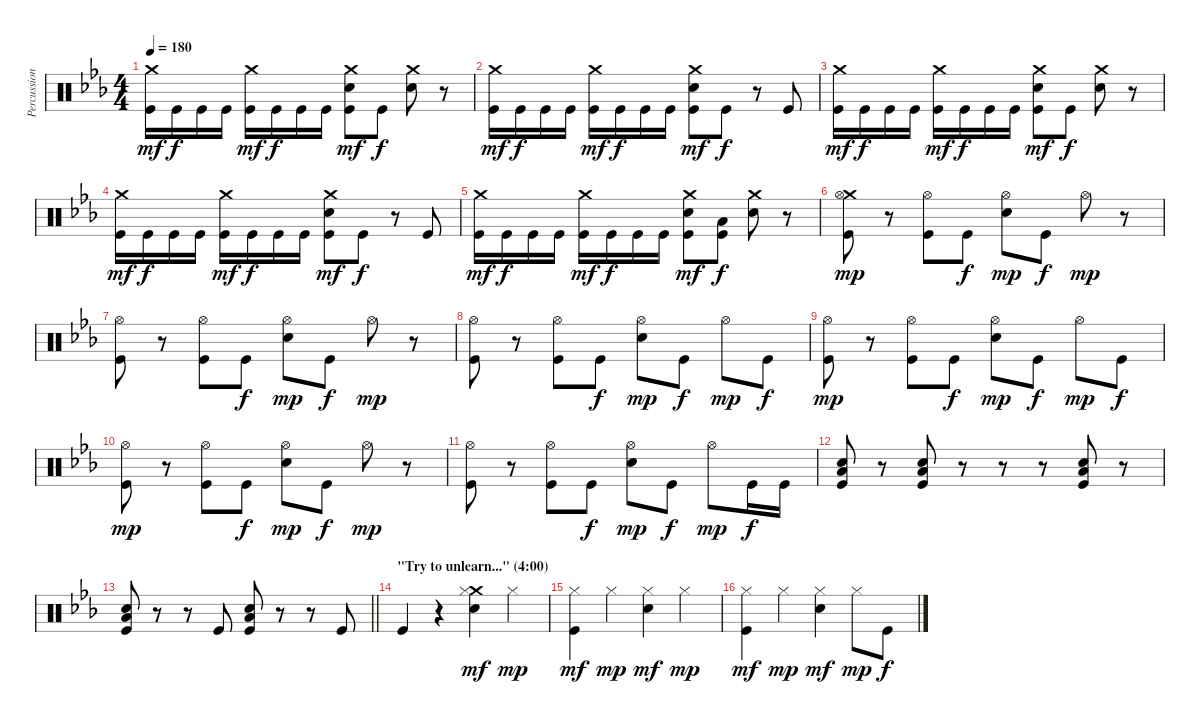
\track ("Percussion" "Percussion") {instrument percussion}
\staff {score}
\articulation defaults
\ts (4 4)
\tempo 180
\clef neutral
\ks cminor
("Crash medium (hit)" "Kick (hit)").16{dy mf} "Kick (hit)".16{dy f} "Kick (hit)".16 "Kick (hit)".16 ("Crash medium (hit)" "Kick (hit)").16{dy mf} "Kick (hit)".16{dy f} "Kick (hit)".16 "Kick (hit)".16 ("Crash medium (hit)" "Snare (hit) 2" "Kick (hit)").8{dy mf} "Kick (hit)".8{dy f} ("Crash medium (hit)" "Snare (hit) 2").8 r.8 |
("Crash medium (hit)" "Kick (hit)").16{dy mf} "Kick (hit)".16{dy f} "Kick (hit)".16 "Kick (hit)".16 ("Crash medium (hit)" "Kick (hit)").16{dy mf} "Kick (hit)".16{dy f} "Kick (hit)".16 "Kick (hit)".16 ("Crash medium (hit)" "Snare (hit) 2" "Kick (hit)").8{dy mf} "Kick (hit)".8{dy f} r.8 "Kick (hit)".8 |
("Crash medium (hit)" "Kick (hit)").16{dy mf} "Kick (hit)".16{dy f} "Kick (hit)".16 "Kick (hit)".16 ("Crash medium (hit)" "Kick (hit)").16{dy mf} "Kick (hit)".16{dy f} "Kick (hit)".16 "Kick (hit)".16 ("Crash medium (hit)" "Snare (hit) 2" "Kick (hit)").8{dy mf} "Kick (hit)".8{dy f} ("Crash medium (hit)" "Snare (hit) 2").8 r.8 |
("Crash medium (hit)" "Kick (hit)").16{dy mf} "Kick (hit)".16{dy f} "Kick (hit)".16 "Kick (hit)".16 ("Crash medium (hit)" "Kick (hit)").16{dy mf} "Kick (hit)".16{dy f} "Kick (hit)".16 "Kick (hit)".16 ("Crash medium (hit)" "Snare (hit) 2" "Kick (hit)").8{dy mf} "Kick (hit)".8{dy f} r.8 "Kick (hit)".8 |
("Crash medium (hit)" "Kick (hit)").16{dy mf} "Kick (hit)".16{dy f} "Kick (hit)".16 "Kick (hit)".16 ("Crash medium (hit)" "Kick (hit)").16{dy mf} "Kick (hit)".16{dy f} "Kick (hit)".16 "Kick (hit)".16 ("Crash medium (hit)" "Snare (hit) 2" "Kick (hit)").8{dy mf} ("Low Floor Tom (hit)" "Kick (hit)").8{dy f} ("Crash medium (hit)" "Snare (hit) 2").8 r.8 |
("Crash medium (hit)" "Hi-Hat (open)" "Kick (hit)").8{dy mp} r.8 ("Hi-Hat (open)" "Kick (hit)").8 "Kick (hit)".8{dy f} ("Hi-Hat (open)" "Snare (hit) 2").8{dy mp} "Kick (hit)".8{dy f} "Hi-Hat (open)".8{dy mp} r.8 |
("Hi-Hat (open)" "Kick (hit)").8 r.8 ("Hi-Hat (open)" "Kick (hit)").8 "Kick (hit)".8{dy f} ("Hi-Hat (open)" "Snare (hit) 2").8{dy mp} "Kick (hit)".8{dy f} "Hi-Hat (open)".8{dy mp} r.8 |
("Hi-Hat (open)" "Kick (hit)").8 r.8 ("Hi-Hat (open)" "Kick (hit)").8 "Kick (hit)".8{dy f} ("Hi-Hat (open)" "Snare (hit) 2").8{dy mp} "Kick (hit)".8{dy f} "Hi-Hat (open)".8{dy mp} "Kick (hit)".8{dy f} |
("Hi-Hat (open)" "Kick (hit)").8{dy mp} r.8 ("Hi-Hat (open)" "Kick (hit)").8 "Kick (hit)".8{dy f} ("Hi-Hat (open)" "Snare (hit) 2").8{dy mp} "Kick (hit)".8{dy f} "Hi-Hat (open)".8{dy mp} "Kick (hit)".8{dy f} |
("Hi-Hat (open)" "Kick (hit)").8{dy mp} r.8 ("Hi-Hat (open)" "Kick (hit)").8 "Kick (hit)".8{dy f} ("Hi-Hat (open)" "Snare (hit) 2").8{dy mp} "Kick (hit)".8{dy f} "Hi-Hat (open)".8{dy mp} r.8 |
("Hi-Hat (open)" "Kick (hit)").8 r.8 ("Hi-Hat (open)" "Kick (hit)").8 "Kick (hit)".8{dy f} ("Hi-Hat (open)" "Snare (hit) 2").8{dy mp} "Kick (hit)".8{dy f} "Hi-Hat (open)".8{dy mp} "Kick (hit)".16{dy f} "Kick (hit)".16 |
("Low Floor Tom (hit)" "Snare (hit) 2" "Kick (hit)").8 r.8 ("Low Floor Tom (hit)" "Snare (hit) 2" "Kick (hit)").8 r.8 r.8 r.8 ("Low Floor Tom (hit)" "Snare (hit) 2" "Kick (hit)").8 r.8 |
\barLineRight lightlight
("Low Floor Tom (hit)" "Snare (hit) 2" "Kick (hit)").8 r.8 r.8 "Kick (hit)".8 ("Low Floor Tom (hit)" "Snare (hit) 2" "Kick (hit)").8 r.8 r.8 "Kick (hit)".8 |
\section ("" "\"Try to unlearn...\" (4:00)")
"Kick (hit)".4 r.4 ("Crash medium (hit)" "Hi-Hat (closed)" "Snare (hit) 2").4{dy mf} "Hi-Hat (closed)".4{dy mp} |
("Hi-Hat (closed)" "Kick (hit)").4{dy mf} "Hi-Hat (closed)".4{dy mp} ("Hi-Hat (closed)" "Snare (hit) 2").4{dy mf} "Hi-Hat (closed)".4{dy mp} |
("Hi-Hat (closed)" "Kick (hit)").4{dy mf} "Hi-Hat (closed)".4{dy mp} ("Hi-Hat (closed)" "Snare (hit) 2").4{dy mf} "Hi-Hat (closed)".8{dy mp} "Kick (hit)".8{dy f}
